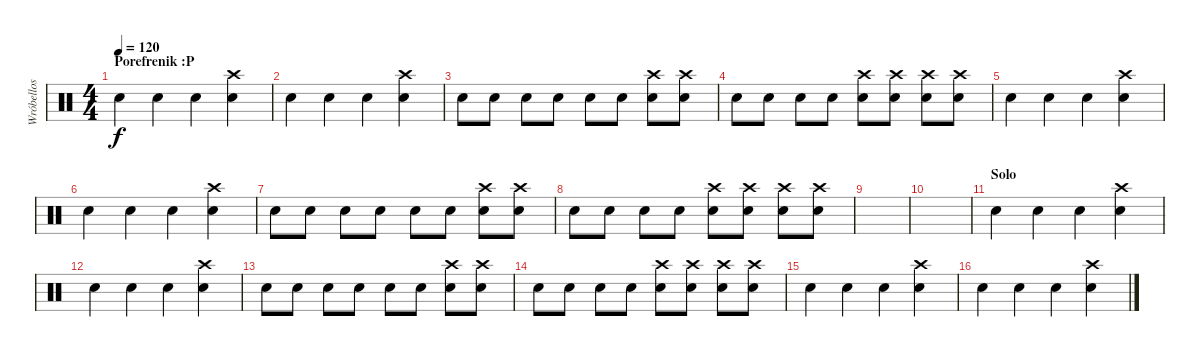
\track ("Wróbellos " "Wróbellos ") {instrument percussion}
\staff {score}
\articulation defaults
\ts (4 4)
\section ("" "Porefrenik :P")
\tempo 120
\clef neutral
\ks c "Electric Snare (hit)".4{dy f} "Electric Snare (hit)".4 "Electric Snare (hit)".4
("Electric Snare (hit)" "Crash high (hit)").4 |
\section ("" "")
"Electric Snare (hit)".4 "Electric Snare (hit)".4 "Electric Snare (hit)".4 ("Electric Snare (hit)" "Crash high (hit)").4 |
"Electric Snare (hit)".8 "Electric Snare (hit)".8 "Electric Snare (hit)".8 "Electric Snare (hit)".8 "Electric Snare (hit)".8 "Electric Snare (hit)".8 ("Electric Snare (hit)" "Crash high (hit)").8 ("Electric Snare (hit)" "Crash high (hit)").8 |
"Electric Snare (hit)".8 "Electric Snare (hit)".8 "Electric Snare (hit)".8 "Electric Snare (hit)".8 ("Electric Snare (hit)" "Crash high (hit)").8 ("Electric Snare (hit)" "Crash high (hit)").8 ("Electric Snare (hit)" "Crash high (hit)").8 ("Electric Snare (hit)" "Crash high (hit)").8 |
"Electric Snare (hit)".4 "Electric Snare (hit)".4 "Electric Snare (hit)".4 ("Electric Snare (hit)" "Crash high (hit)").4 |
"Electric Snare (hit)".4 "Electric Snare (hit)".4 "Electric Snare (hit)".4 ("Electric Snare (hit)" "Crash high (hit)").4 |
"Electric Snare (hit)".8 "Electric Snare (hit)".8 "Electric Snare (hit)".8 "Electric Snare (hit)".8 "Electric Snare (hit)".8 "Electric Snare (hit)".8 ("Electric Snare (hit)" "Crash high (hit)").8 ("Electric Snare (hit)" "Crash high (hit)").8 |
"Electric Snare (hit)".8 "Electric Snare (hit)".8 "Electric Snare (hit)".8 "Electric Snare (hit)".8 ("Electric Snare (hit)" "Crash high (hit)").8 ("Electric Snare (hit)" "Crash high (hit)").8 ("Electric Snare (hit)" "Crash high (hit)").8 ("Electric Snare (hit)" "Crash high (hit)").8 |
|
|
\section ("" "Solo")
"Electric Snare (hit)".4 "Electric Snare (hit)".4 "Electric Snare (hit)".4 ("Electric Snare (hit)" "Crash high (hit)").4 |
"Electric Snare (hit)".4 "Electric Snare (hit)".4 "Electric Snare (hit)".4 ("Electric Snare (hit)" "Crash high (hit)").4 |
"Electric Snare (hit)".8 "Electric Snare (hit)".8 "Electric Snare (hit)".8 "Electric Snare (hit)".8 "Electric Snare (hit)".8 "Electric Snare (hit)".8 ("Electric Snare (hit)" "Crash high (hit)").8 ("Electric Snare (hit)" "Crash high (hit)").8 |
"Electric Snare (hit)".8 "Electric Snare (hit)".8 "Electric Snare (hit)".8 "Electric Snare (hit)".8 ("Electric Snare (hit)" "Crash high (hit)").8 ("Electric Snare (hit)" "Crash high (hit)").8 ("Electric Snare (hit)" "Crash high (hit)").8 ("Electric Snare (hit)" "Crash high (hit)").8 |
"Electric Snare (hit)".4 "Electric Snare (hit)".4 "Electric Snare (hit)".4 ("Electric Snare (hit)" "Crash high (hit)").4 |
"Electric Snare (hit)".4 "Electric Snare (hit)".4 "Electric Snare (hit)".4 ("Electric Snare (hit)" "Crash high (hit)").4
